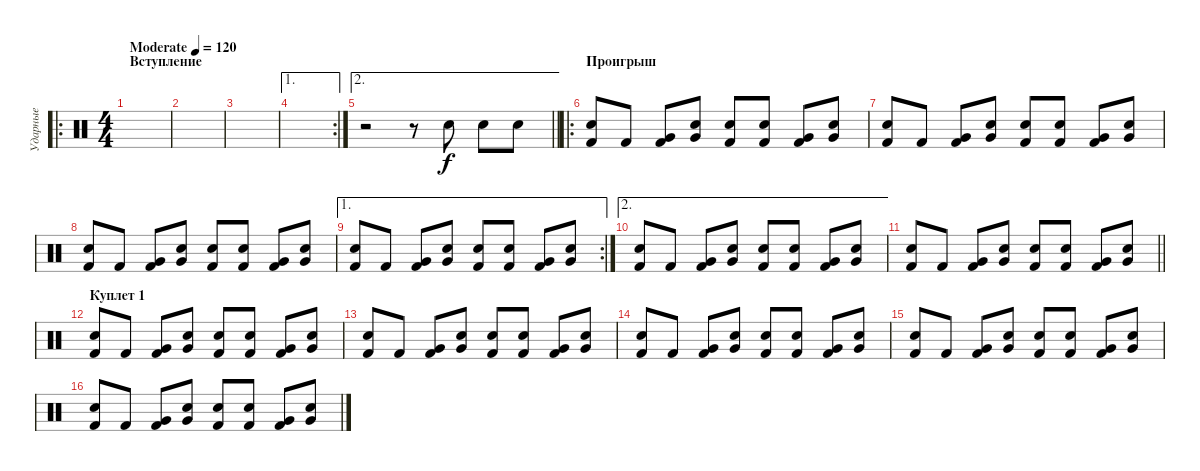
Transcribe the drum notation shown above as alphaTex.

\track ("Ударные" "Ударные") {instrument percussion}
\staff {score}
\articulation defaults
\ro
\ts (4 4)
\section ("" "Вступление")
\tempo (120 "Moderate")
\clef neutral
\ks c
|
|
|
\ae 1
\rc 2
|
\ae 2
\barLineRight lightlight
r.2 r.8 "Snare (hit) 2".8 "Snare (hit) 2".8 "Snare (hit) 2".8 |
\ro
\section ("" "Проигрыш")
("Snare (hit) 2" "Kick (hit) 2").8 "Kick (hit) 2".8 ("Very Low Tom (hit)" "Kick (hit) 2").8 ("Very Low Tom (hit)" "Snare (hit) 2").8 ("Snare (hit) 2" "Kick (hit) 2").8 ("Snare (hit) 2" "Kick (hit) 2").8 ("Very Low Tom (hit)" "Kick (hit) 2").8 ("Very Low Tom (hit)" "Snare (hit) 2").8 |
("Snare (hit) 2" "Kick (hit) 2").8 "Kick (hit) 2".8 ("Very Low Tom (hit)" "Kick (hit) 2").8 ("Very Low Tom (hit)" "Snare (hit) 2").8 ("Snare (hit) 2" "Kick (hit) 2").8 ("Snare (hit) 2" "Kick (hit) 2").8 ("Very Low Tom (hit)" "Kick (hit) 2").8 ("Very Low Tom (hit)" "Snare (hit) 2").8 |
("Snare (hit) 2" "Kick (hit) 2").8 "Kick (hit) 2".8 ("Very Low Tom (hit)" "Kick (hit) 2").8 ("Very Low Tom (hit)" "Snare (hit) 2").8 ("Snare (hit) 2" "Kick (hit) 2").8 ("Snare (hit) 2" "Kick (hit) 2").8 ("Very Low Tom (hit)" "Kick (hit) 2").8 ("Very Low Tom (hit)" "Snare (hit) 2").8 |
\ae 1
\rc 2
("Snare (hit) 2" "Kick (hit) 2").8 "Kick (hit) 2".8 ("Very Low Tom (hit)" "Kick (hit) 2").8 ("Very Low Tom (hit)" "Snare (hit) 2").8 ("Snare (hit) 2" "Kick (hit) 2").8 ("Snare (hit) 2" "Kick (hit) 2").8 ("Very Low Tom (hit)" "Kick (hit) 2").8 ("Very Low Tom (hit)" "Snare (hit) 2").8 |
\ae 2
("Snare (hit) 2" "Kick (hit) 2").8 "Kick (hit) 2".8 ("Very Low Tom (hit)" "Kick (hit) 2").8 ("Very Low Tom (hit)" "Snare (hit) 2").8 ("Snare (hit) 2" "Kick (hit) 2").8 ("Snare (hit) 2" "Kick (hit) 2").8 ("Very Low Tom (hit)" "Kick (hit) 2").8 ("Very Low Tom (hit)" "Snare (hit) 2").8 |
\barLineRight lightlight
("Snare (hit) 2" "Kick (hit) 2").8 "Kick (hit) 2".8 ("Very Low Tom (hit)" "Kick (hit) 2").8 ("Very Low Tom (hit)" "Snare (hit) 2").8 ("Snare (hit) 2" "Kick (hit) 2").8 ("Snare (hit) 2" "Kick (hit) 2").8 ("Very Low Tom (hit)" "Kick (hit) 2").8 ("Very Low Tom (hit)" "Snare (hit) 2").8 |
\section ("" "Куплет 1")
("Snare (hit) 2" "Kick (hit) 2").8 "Kick (hit) 2".8 ("Very Low Tom (hit)" "Kick (hit) 2").8 ("Very Low Tom (hit)" "Snare (hit) 2").8 ("Snare (hit) 2" "Kick (hit) 2").8 ("Snare (hit) 2" "Kick (hit) 2").8 ("Very Low Tom (hit)" "Kick (hit) 2").8 ("Very Low Tom (hit)" "Snare (hit) 2").8 |
("Snare (hit) 2" "Kick (hit) 2").8 "Kick (hit) 2".8 ("Very Low Tom (hit)" "Kick (hit) 2").8 ("Very Low Tom (hit)" "Snare (hit) 2").8 ("Snare (hit) 2" "Kick (hit) 2").8 ("Snare (hit) 2" "Kick (hit) 2").8 ("Very Low Tom (hit)" "Kick (hit) 2").8 ("Very Low Tom (hit)" "Snare (hit) 2").8 |
("Snare (hit) 2" "Kick (hit) 2").8 "Kick (hit) 2".8 ("Very Low Tom (hit)" "Kick (hit) 2").8 ("Very Low Tom (hit)" "Snare (hit) 2").8 ("Snare (hit) 2" "Kick (hit) 2").8 ("Snare (hit) 2" "Kick (hit) 2").8 ("Very Low Tom (hit)" "Kick (hit) 2").8 ("Very Low Tom (hit)" "Snare (hit) 2").8 |
("Snare (hit) 2" "Kick (hit) 2").8 "Kick (hit) 2".8 ("Very Low Tom (hit)" "Kick (hit) 2").8 ("Very Low Tom (hit)" "Snare (hit) 2").8 ("Snare (hit) 2" "Kick (hit) 2").8 ("Snare (hit) 2" "Kick (hit) 2").8 ("Very Low Tom (hit)" "Kick (hit) 2").8 ("Very Low Tom (hit)" "Snare (hit) 2").8 |
("Snare (hit) 2" "Kick (hit) 2").8 "Kick (hit) 2".8 ("Very Low Tom (hit)" "Kick (hit) 2").8 ("Very Low Tom (hit)" "Snare (hit) 2").8 ("Snare (hit) 2" "Kick (hit) 2").8 ("Snare (hit) 2" "Kick (hit) 2").8 ("Very Low Tom (hit)" "Kick (hit) 2").8 ("Very Low Tom (hit)" "Snare (hit) 2").8
